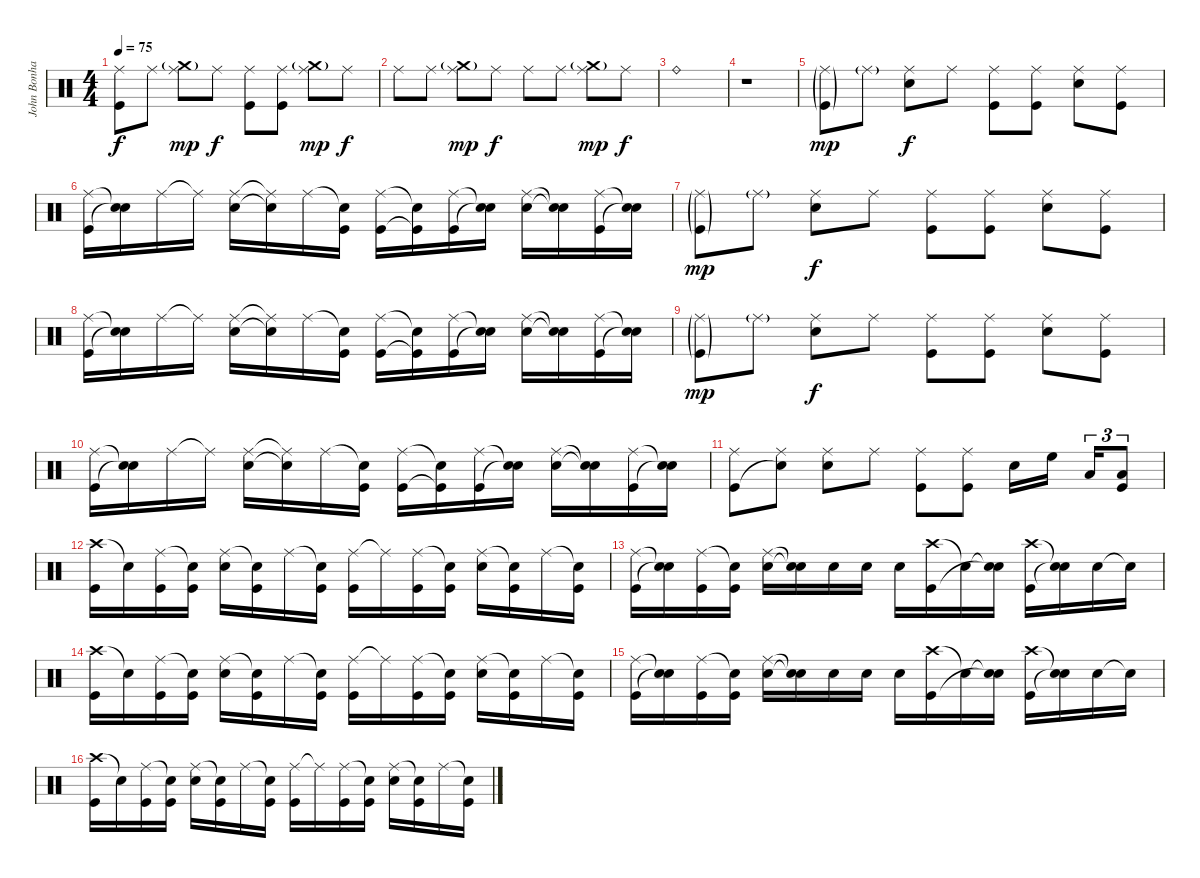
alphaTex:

\track ("John Bonham (Drums)" "John Bonha") {instrument percussion}
\staff {score}
\articulation defaults
\ts (4 4)
\tempo 75
\clef neutral
\ks c
("Ride (middle)" "Kick (hit)").8{dy f} "Ride (middle)".8 ("Ride (middle)" "Crash medium (hit)"{g}).8{dy mp} "Ride (middle)".8{dy f} ("Ride (middle)" "Kick (hit)").8 ("Ride (middle)" "Kick (hit)").8 ("Ride (middle)" "Crash medium (hit)"{g}).8{dy mp} "Ride (middle)".8{dy f} |
"Ride (middle)".8 "Ride (middle)".8 ("Ride (middle)" "Crash medium (hit)"{g}).8{dy mp} "Ride (middle)".8{dy f} "Ride (middle)".8 "Ride (middle)".8 ("Ride (middle)" "Crash medium (hit)"{g}).8{dy mp} "Ride (middle)".8{dy f} |
"Ride (bell)".1 |
r.1 |
("Ride (middle)"{g} "Kick (hit)"{g}).8{dy mp} "Ride (middle)"{g}.8 ("Ride (middle)" "Snare (hit) 2").8{dy f} "Ride (middle)".8 ("Ride (middle)" "Kick (hit)").8 ("Ride (middle)" "Kick (hit)").8 ("Ride (middle)" "Snare (hit) 2").8 ("Ride (middle)" "Kick (hit)").8 |
("Ride (middle)" "Kick (hit)").16 ("Snare (hit)"{t} "Snare (hit)"{t}).16 "Ride (middle)".16 "Ride (middle)"{t}.16 ("Ride (middle)" "Snare (hit) 2").16 ("Ride (middle)"{t} "Snare (hit)"{t}).16 "Ride (middle)".16 ("Snare (hit)"{t} "Kick (hit)").16 ("Ride (middle)" "Kick (hit)").16 ("Snare (hit)"{t} "Kick (hit)"{t}).16 ("Ride (middle)" "Kick (hit)").16 ("Snare (hit)"{t} "Snare (hit)"{t}).16 ("Ride (middle)" "Snare (hit) 2").16 ("Snare (hit)"{t} "Snare (hit)"{t}).16 ("Ride (middle)" "Kick (hit)").16 ("Snare (hit)"{t} "Snare (hit)"{t}).16 |
("Ride (middle)"{g} "Kick (hit)"{g}).8{dy mp} "Ride (middle)"{g}.8 ("Ride (middle)" "Snare (hit) 2").8{dy f} "Ride (middle)".8 ("Ride (middle)" "Kick (hit)").8 ("Ride (middle)" "Kick (hit)").8 ("Ride (middle)" "Snare (hit) 2").8 ("Ride (middle)" "Kick (hit)").8 |
("Ride (middle)" "Kick (hit)").16 ("Snare (hit)"{t} "Snare (hit)"{t}).16 "Ride (middle)".16 "Ride (middle)"{t}.16 ("Ride (middle)" "Snare (hit) 2").16 ("Ride (middle)"{t} "Snare (hit)"{t}).16 "Ride (middle)".16 ("Snare (hit)"{t} "Kick (hit)").16 ("Ride (middle)" "Kick (hit)").16 ("Snare (hit)"{t} "Kick (hit)"{t}).16 ("Ride (middle)" "Kick (hit)").16 ("Snare (hit)"{t} "Snare (hit)"{t}).16 ("Ride (middle)" "Snare (hit) 2").16 ("Snare (hit)"{t} "Snare (hit)"{t}).16 ("Ride (middle)" "Kick (hit)").16 ("Snare (hit)"{t} "Snare (hit)"{t}).16 |
("Ride (middle)"{g} "Kick (hit)"{g}).8{dy mp} "Ride (middle)"{g}.8 ("Ride (middle)" "Snare (hit) 2").8{dy f} "Ride (middle)".8 ("Ride (middle)" "Kick (hit)").8 ("Ride (middle)" "Kick (hit)").8 ("Ride (middle)" "Snare (hit) 2").8 ("Ride (middle)" "Kick (hit)").8 |
("Ride (middle)" "Kick (hit)").16 ("Snare (hit)"{t} "Snare (hit)"{t}).16 "Ride (middle)".16 "Ride (middle)"{t}.16 ("Ride (middle)" "Snare (hit) 2").16 ("Ride (middle)"{t} "Snare (hit)"{t}).16 "Ride (middle)".16 ("Snare (hit)"{t} "Kick (hit)").16 ("Ride (middle)" "Kick (hit)").16 ("Snare (hit)"{t} "Kick (hit)"{t}).16 ("Ride (middle)" "Kick (hit)").16 ("Snare (hit)"{t} "Snare (hit)"{t}).16 ("Ride (middle)" "Snare (hit) 2").16 ("Snare (hit)"{t} "Snare (hit)"{t}).16 ("Ride (middle)" "Kick (hit)").16 ("Snare (hit)"{t} "Snare (hit)"{t}).16 |
("Ride (middle)" "Kick (hit)").8 ("Ride (middle)" "Snare (hit)"{t}).8 ("Ride (middle)" "Snare (hit) 2").8 "Ride (middle)".8 ("Ride (middle)" "Kick (hit)").8 ("Ride (middle)" "Kick (hit)").8 "Snare (hit) 2".16 "High Floor Tom (hit)".16 "Low Tom (hit)".16{tu (3 2)} ("Kick (hit)" "Low Tom (hit)").8{tu (3 2)} |
("Crash high (hit)" "Kick (hit)").16 "Snare (hit)"{t}.16 ("Ride (middle)" "Kick (hit)").16 ("Snare (hit)"{t} "Kick (hit)").16 ("Ride (middle)" "Snare (hit) 2").16 ("Snare (hit)"{t} "Kick (hit)").16 "Ride (middle)".16 ("Snare (hit)"{t} "Kick (hit)").16 ("Ride (middle)" "Kick (hit)").16 "Ride (middle)"{t}.16 ("Ride (middle)" "Kick (hit)").16 ("Snare (hit)"{t} "Kick (hit)").16 ("Ride (middle)" "Snare (hit) 2").16 ("Snare (hit)"{t} "Kick (hit)").16 "Ride (middle)".16 ("Snare (hit)"{t} "Kick (hit)").16 |
("Ride (middle)" "Kick (hit)").16 ("Snare (hit)"{t} "Snare (hit)"{t}).16 ("Ride (middle)" "Kick (hit)").16 ("Snare (hit)"{t} "Kick (hit)").16 ("Ride (middle)" "Snare (hit) 2").16 ("Snare (hit)"{t} "Snare (hit)"{t}).16 "Snare (hit) 2".16 "Snare (hit) 2".16 "Snare (hit) 2".16 ("Crash high (hit)" "Kick (hit)").16 "Snare (hit)"{t}.16 ("Snare (hit)"{t} "Snare (hit)"{t}).16 ("Crash high (hit)" "Kick (hit)").16 ("Snare (hit)"{t} "Snare (hit)"{t}).16 "Snare (hit) 2".16 "Snare (hit)"{t}.16 |
("Crash high (hit)" "Kick (hit)").16 "Snare (hit)"{t}.16 ("Ride (middle)" "Kick (hit)").16 ("Snare (hit)"{t} "Kick (hit)").16 ("Ride (middle)" "Snare (hit) 2").16 ("Snare (hit)"{t} "Kick (hit)").16 "Ride (middle)".16 ("Snare (hit)"{t} "Kick (hit)").16 ("Ride (middle)" "Kick (hit)").16 "Ride (middle)"{t}.16 ("Ride (middle)" "Kick (hit)").16 ("Snare (hit)"{t} "Kick (hit)").16 ("Ride (middle)" "Snare (hit) 2").16 ("Snare (hit)"{t} "Kick (hit)").16 "Ride (middle)".16 ("Snare (hit)"{t} "Kick (hit)").16 |
("Ride (middle)" "Kick (hit)").16 ("Snare (hit)"{t} "Snare (hit)"{t}).16 ("Ride (middle)" "Kick (hit)").16 ("Snare (hit)"{t} "Kick (hit)").16 ("Ride (middle)" "Snare (hit) 2").16 ("Snare (hit)"{t} "Snare (hit)"{t}).16 "Snare (hit) 2".16 "Snare (hit) 2".16 "Snare (hit) 2".16 ("Crash high (hit)" "Kick (hit)").16 "Snare (hit)"{t}.16 ("Snare (hit)"{t} "Snare (hit)"{t}).16 ("Crash high (hit)" "Kick (hit)").16 ("Snare (hit)"{t} "Snare (hit)"{t}).16 "Snare (hit) 2".16 "Snare (hit)"{t}.16 |
("Crash high (hit)" "Kick (hit)").16 "Snare (hit)"{t}.16 ("Ride (middle)" "Kick (hit)").16 ("Snare (hit)"{t} "Kick (hit)").16 ("Ride (middle)" "Snare (hit) 2").16 ("Snare (hit)"{t} "Kick (hit)").16 "Ride (middle)".16 ("Snare (hit)"{t} "Kick (hit)").16 ("Ride (middle)" "Kick (hit)").16 "Ride (middle)"{t}.16 ("Ride (middle)" "Kick (hit)").16 ("Snare (hit)"{t} "Kick (hit)").16 ("Ride (middle)" "Snare (hit) 2").16 ("Snare (hit)"{t} "Kick (hit)").16 "Ride (middle)".16 ("Snare (hit)"{t} "Kick (hit)").16
